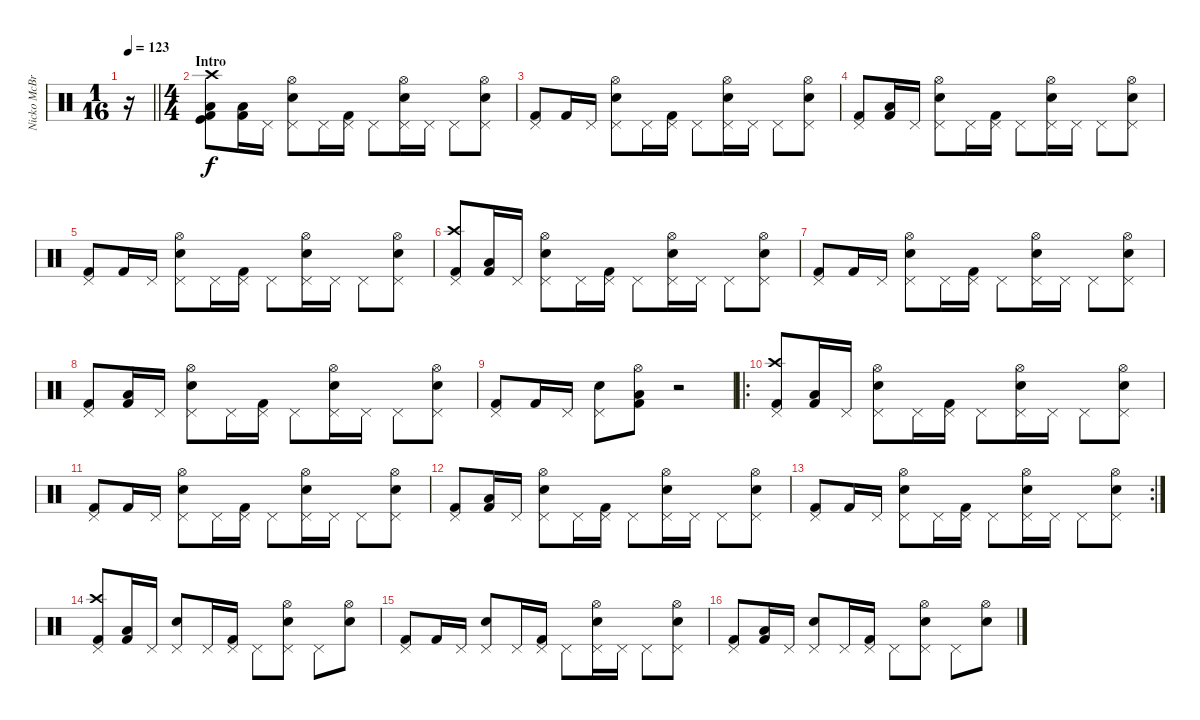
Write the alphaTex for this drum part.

\track ("Nicko McBrain" "Nicko McBr") {instrument percussion}
\staff {score}
\articulation defaults
\ts (1 16)
\tempo 123
\clef neutral
\barLineRight lightlight
\ks c
r.16{dy f} |
\ts (4 4)
\section ("" "Intro")
("Kick (hit) 2" "Kick (hit)" "Low Floor Tom (hit)" "Crash high (hit)").8 ("Kick (hit) 2" "Low Tom (hit)").16 "Pedal Hi-Hat (hit)".16 ("Snare (hit) 2" "Pedal Hi-Hat (hit)" "Hi-Hat (open)").8 "Pedal Hi-Hat (hit)".16 ("Kick (hit) 2" "Pedal Hi-Hat (hit)").16 "Pedal Hi-Hat (hit)".8 ("Snare (hit) 2" "Pedal Hi-Hat (hit)" "Hi-Hat (open)").16 "Pedal Hi-Hat (hit)".16 "Pedal Hi-Hat (hit)".8 ("Snare (hit) 2" "Pedal Hi-Hat (hit)" "Hi-Hat (open)").8 |
("Kick (hit) 2" "Pedal Hi-Hat (hit)").8 "Kick (hit) 2".16 "Pedal Hi-Hat (hit)".16 ("Snare (hit) 2" "Pedal Hi-Hat (hit)" "Hi-Hat (open)").8 "Pedal Hi-Hat (hit)".16 ("Kick (hit) 2" "Pedal Hi-Hat (hit)").16 "Pedal Hi-Hat (hit)".8 ("Snare (hit) 2" "Pedal Hi-Hat (hit)" "Hi-Hat (open)").16 "Pedal Hi-Hat (hit)".16 "Pedal Hi-Hat (hit)".8 ("Snare (hit) 2" "Pedal Hi-Hat (hit)" "Hi-Hat (open)").8 |
("Kick (hit) 2" "Pedal Hi-Hat (hit)").8 ("Kick (hit) 2" "Low Tom (hit)").16 "Pedal Hi-Hat (hit)".16 ("Snare (hit) 2" "Pedal Hi-Hat (hit)" "Hi-Hat (open)").8 "Pedal Hi-Hat (hit)".16 ("Kick (hit) 2" "Pedal Hi-Hat (hit)").16 "Pedal Hi-Hat (hit)".8 ("Snare (hit) 2" "Pedal Hi-Hat (hit)" "Hi-Hat (open)").16 "Pedal Hi-Hat (hit)".16 "Pedal Hi-Hat (hit)".8 ("Snare (hit) 2" "Pedal Hi-Hat (hit)" "Hi-Hat (open)").8 |
("Kick (hit) 2" "Pedal Hi-Hat (hit)").8 "Kick (hit) 2".16 "Pedal Hi-Hat (hit)".16 ("Snare (hit) 2" "Pedal Hi-Hat (hit)" "Hi-Hat (open)").8 "Pedal Hi-Hat (hit)".16 ("Kick (hit) 2" "Pedal Hi-Hat (hit)").16 "Pedal Hi-Hat (hit)".8 ("Snare (hit) 2" "Pedal Hi-Hat (hit)" "Hi-Hat (open)").16 "Pedal Hi-Hat (hit)".16 "Pedal Hi-Hat (hit)".8 ("Snare (hit) 2" "Pedal Hi-Hat (hit)" "Hi-Hat (open)").8 |
("Kick (hit) 2" "Pedal Hi-Hat (hit)" "Crash high (hit)").8 ("Kick (hit) 2" "Low Tom (hit)").16 "Pedal Hi-Hat (hit)".16 ("Snare (hit) 2" "Pedal Hi-Hat (hit)" "Hi-Hat (open)").8 "Pedal Hi-Hat (hit)".16 ("Kick (hit) 2" "Pedal Hi-Hat (hit)").16 "Pedal Hi-Hat (hit)".8 ("Snare (hit) 2" "Pedal Hi-Hat (hit)" "Hi-Hat (open)").16 "Pedal Hi-Hat (hit)".16 "Pedal Hi-Hat (hit)".8 ("Snare (hit) 2" "Pedal Hi-Hat (hit)" "Hi-Hat (open)").8 |
("Kick (hit) 2" "Pedal Hi-Hat (hit)").8 "Kick (hit) 2".16 "Pedal Hi-Hat (hit)".16 ("Snare (hit) 2" "Pedal Hi-Hat (hit)" "Hi-Hat (open)").8 "Pedal Hi-Hat (hit)".16 ("Kick (hit) 2" "Pedal Hi-Hat (hit)").16 "Pedal Hi-Hat (hit)".8 ("Snare (hit) 2" "Pedal Hi-Hat (hit)" "Hi-Hat (open)").16 "Pedal Hi-Hat (hit)".16 "Pedal Hi-Hat (hit)".8 ("Snare (hit) 2" "Pedal Hi-Hat (hit)" "Hi-Hat (open)").8 |
("Kick (hit) 2" "Pedal Hi-Hat (hit)").8 ("Kick (hit) 2" "Low Tom (hit)").16 "Pedal Hi-Hat (hit)".16 ("Snare (hit) 2" "Pedal Hi-Hat (hit)" "Hi-Hat (open)").8 "Pedal Hi-Hat (hit)".16 ("Kick (hit) 2" "Pedal Hi-Hat (hit)").16 "Pedal Hi-Hat (hit)".8 ("Snare (hit) 2" "Pedal Hi-Hat (hit)" "Hi-Hat (open)").16 "Pedal Hi-Hat (hit)".16 "Pedal Hi-Hat (hit)".8 ("Snare (hit) 2" "Pedal Hi-Hat (hit)" "Hi-Hat (open)").8 |
("Kick (hit) 2" "Pedal Hi-Hat (hit)").8 "Kick (hit) 2".16 "Pedal Hi-Hat (hit)".16 ("Snare (hit) 2" "Pedal Hi-Hat (hit)").8 ("Kick (hit) 2" "Low Tom (hit)" "Hi-Hat (open)").8 r.2 |
\ro
("Kick (hit) 2" "Pedal Hi-Hat (hit)" "Crash high (hit)").8 ("Kick (hit) 2" "Low Tom (hit)").16 "Pedal Hi-Hat (hit)".16 ("Snare (hit) 2" "Pedal Hi-Hat (hit)" "Hi-Hat (open)").8 "Pedal Hi-Hat (hit)".16 ("Kick (hit) 2" "Pedal Hi-Hat (hit)").16 "Pedal Hi-Hat (hit)".8 ("Snare (hit) 2" "Pedal Hi-Hat (hit)" "Hi-Hat (open)").16 "Pedal Hi-Hat (hit)".16 "Pedal Hi-Hat (hit)".8 ("Snare (hit) 2" "Pedal Hi-Hat (hit)" "Hi-Hat (open)").8 |
("Kick (hit) 2" "Pedal Hi-Hat (hit)").8 "Kick (hit) 2".16 "Pedal Hi-Hat (hit)".16 ("Snare (hit) 2" "Pedal Hi-Hat (hit)" "Hi-Hat (open)").8 "Pedal Hi-Hat (hit)".16 ("Kick (hit) 2" "Pedal Hi-Hat (hit)").16 "Pedal Hi-Hat (hit)".8 ("Snare (hit) 2" "Pedal Hi-Hat (hit)" "Hi-Hat (open)").16 "Pedal Hi-Hat (hit)".16 "Pedal Hi-Hat (hit)".8 ("Snare (hit) 2" "Pedal Hi-Hat (hit)" "Hi-Hat (open)").8 |
("Kick (hit) 2" "Pedal Hi-Hat (hit)").8 ("Kick (hit) 2" "Low Tom (hit)").16 "Pedal Hi-Hat (hit)".16 ("Snare (hit) 2" "Pedal Hi-Hat (hit)" "Hi-Hat (open)").8 "Pedal Hi-Hat (hit)".16 ("Kick (hit) 2" "Pedal Hi-Hat (hit)").16 "Pedal Hi-Hat (hit)".8 ("Snare (hit) 2" "Pedal Hi-Hat (hit)" "Hi-Hat (open)").16 "Pedal Hi-Hat (hit)".16 "Pedal Hi-Hat (hit)".8 ("Snare (hit) 2" "Pedal Hi-Hat (hit)" "Hi-Hat (open)").8 |
\rc 2
("Kick (hit) 2" "Pedal Hi-Hat (hit)").8 "Kick (hit) 2".16 "Pedal Hi-Hat (hit)".16 ("Snare (hit) 2" "Pedal Hi-Hat (hit)" "Hi-Hat (open)").8 "Pedal Hi-Hat (hit)".16 ("Kick (hit) 2" "Pedal Hi-Hat (hit)").16 "Pedal Hi-Hat (hit)".8 ("Snare (hit) 2" "Pedal Hi-Hat (hit)" "Hi-Hat (open)").16 "Pedal Hi-Hat (hit)".16 "Pedal Hi-Hat (hit)".8 ("Snare (hit) 2" "Pedal Hi-Hat (hit)" "Hi-Hat (open)").8 |
("Kick (hit) 2" "Pedal Hi-Hat (hit)" "Crash high (hit)").8 ("Kick (hit) 2" "Low Tom (hit)").16 "Pedal Hi-Hat (hit)".16 ("Snare (hit) 2" "Pedal Hi-Hat (hit)").8 "Pedal Hi-Hat (hit)".16 ("Kick (hit) 2" "Pedal Hi-Hat (hit)").16 "Pedal Hi-Hat (hit)".8 ("Snare (hit) 2" "Pedal Hi-Hat (hit)" "Hi-Hat (open)").8 "Pedal Hi-Hat (hit)".8 ("Snare (hit) 2" "Hi-Hat (open)").8 |
("Kick (hit) 2" "Pedal Hi-Hat (hit)").8 "Kick (hit) 2".16 "Pedal Hi-Hat (hit)".16 ("Snare (hit) 2" "Pedal Hi-Hat (hit)").8 "Pedal Hi-Hat (hit)".16 ("Kick (hit) 2" "Pedal Hi-Hat (hit)").16 "Pedal Hi-Hat (hit)".8 ("Snare (hit) 2" "Pedal Hi-Hat (hit)" "Hi-Hat (open)").16 "Pedal Hi-Hat (hit)".16 "Pedal Hi-Hat (hit)".8 ("Snare (hit) 2" "Pedal Hi-Hat (hit)" "Hi-Hat (open)").8 |
("Kick (hit) 2" "Pedal Hi-Hat (hit)").8 ("Kick (hit) 2" "Low Tom (hit)").16 "Pedal Hi-Hat (hit)".16 ("Snare (hit) 2" "Pedal Hi-Hat (hit)").8 "Pedal Hi-Hat (hit)".16 ("Kick (hit) 2" "Pedal Hi-Hat (hit)").16 "Pedal Hi-Hat (hit)".8 ("Snare (hit) 2" "Pedal Hi-Hat (hit)" "Hi-Hat (open)").8 "Pedal Hi-Hat (hit)".8 ("Snare (hit) 2" "Hi-Hat (open)").8
